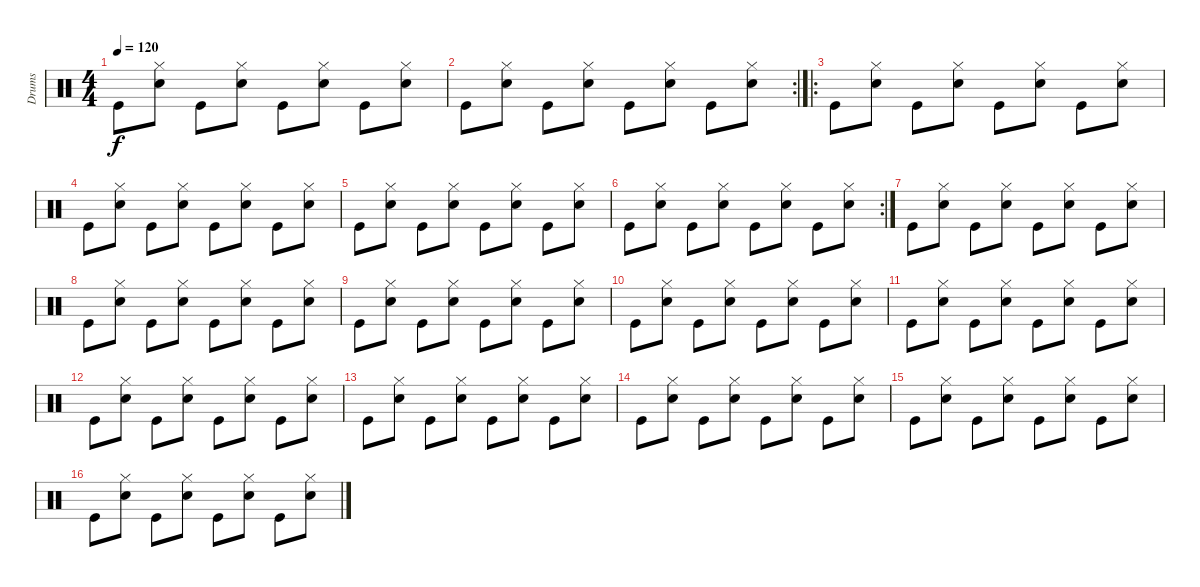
\track ("Drums" "Drums") {instrument percussion}
\staff {score}
\articulation defaults
\ts (4 4)
\tempo 120
\clef neutral
\ks c "Kick (hit)".8{dy f}
("Hi-Hat (closed)" "Snare (hit) 2").8 "Kick (hit)".8 ("Hi-Hat (closed)" "Snare (hit) 2").8 "Kick (hit)".8 ("Hi-Hat (closed)" "Snare (hit) 2").8 "Kick (hit)".8 ("Hi-Hat (closed)" "Snare (hit) 2").8 |
\rc 2 "Kick (hit)".8
("Hi-Hat (closed)" "Snare (hit) 2").8 "Kick (hit)".8 ("Hi-Hat (closed)" "Snare (hit) 2").8 "Kick (hit)".8 ("Hi-Hat (closed)" "Snare (hit) 2").8 "Kick (hit)".8 ("Hi-Hat (closed)" "Snare (hit) 2").8 |
\ro "Kick (hit)".8
("Hi-Hat (closed)" "Snare (hit) 2").8 "Kick (hit)".8 ("Hi-Hat (closed)" "Snare (hit) 2").8 "Kick (hit)".8 ("Hi-Hat (closed)" "Snare (hit) 2").8 "Kick (hit)".8 ("Hi-Hat (closed)" "Snare (hit) 2").8 |
"Kick (hit)".8 ("Hi-Hat (closed)" "Snare (hit) 2").8 "Kick (hit)".8 ("Hi-Hat (closed)" "Snare (hit) 2").8 "Kick (hit)".8 ("Hi-Hat (closed)" "Snare (hit) 2").8 "Kick (hit)".8 ("Hi-Hat (closed)" "Snare (hit) 2").8 |
"Kick (hit)".8 ("Hi-Hat (closed)" "Snare (hit) 2").8 "Kick (hit)".8 ("Hi-Hat (closed)" "Snare (hit) 2").8 "Kick (hit)".8 ("Hi-Hat (closed)" "Snare (hit) 2").8 "Kick (hit)".8 ("Hi-Hat (closed)" "Snare (hit) 2").8 |
\rc 2 "Kick (hit)".8
("Hi-Hat (closed)" "Snare (hit) 2").8 "Kick (hit)".8 ("Hi-Hat (closed)" "Snare (hit) 2").8 "Kick (hit)".8 ("Hi-Hat (closed)" "Snare (hit) 2").8 "Kick (hit)".8 ("Hi-Hat (closed)" "Snare (hit) 2").8 |
"Kick (hit)".8 ("Hi-Hat (closed)" "Snare (hit) 2").8 "Kick (hit)".8 ("Hi-Hat (closed)" "Snare (hit) 2").8 "Kick (hit)".8 ("Hi-Hat (closed)" "Snare (hit) 2").8 "Kick (hit)".8 ("Hi-Hat (closed)" "Snare (hit) 2").8 |
"Kick (hit)".8 ("Hi-Hat (closed)" "Snare (hit) 2").8 "Kick (hit)".8 ("Hi-Hat (closed)" "Snare (hit) 2").8 "Kick (hit)".8 ("Hi-Hat (closed)" "Snare (hit) 2").8 "Kick (hit)".8 ("Hi-Hat (closed)" "Snare (hit) 2").8 |
"Kick (hit)".8 ("Hi-Hat (closed)" "Snare (hit) 2").8 "Kick (hit)".8 ("Hi-Hat (closed)" "Snare (hit) 2").8 "Kick (hit)".8 ("Hi-Hat (closed)" "Snare (hit) 2").8 "Kick (hit)".8 ("Hi-Hat (closed)" "Snare (hit) 2").8 |
"Kick (hit)".8 ("Hi-Hat (closed)" "Snare (hit) 2").8 "Kick (hit)".8 ("Hi-Hat (closed)" "Snare (hit) 2").8 "Kick (hit)".8 ("Hi-Hat (closed)" "Snare (hit) 2").8 "Kick (hit)".8 ("Hi-Hat (closed)" "Snare (hit) 2").8 |
"Kick (hit)".8 ("Hi-Hat (closed)" "Snare (hit) 2").8 "Kick (hit)".8 ("Hi-Hat (closed)" "Snare (hit) 2").8 "Kick (hit)".8 ("Hi-Hat (closed)" "Snare (hit) 2").8 "Kick (hit)".8 ("Hi-Hat (closed)" "Snare (hit) 2").8 |
"Kick (hit)".8 ("Hi-Hat (closed)" "Snare (hit) 2").8 "Kick (hit)".8 ("Hi-Hat (closed)" "Snare (hit) 2").8 "Kick (hit)".8 ("Hi-Hat (closed)" "Snare (hit) 2").8 "Kick (hit)".8 ("Hi-Hat (closed)" "Snare (hit) 2").8 |
"Kick (hit)".8 ("Hi-Hat (closed)" "Snare (hit) 2").8 "Kick (hit)".8 ("Hi-Hat (closed)" "Snare (hit) 2").8 "Kick (hit)".8 ("Hi-Hat (closed)" "Snare (hit) 2").8 "Kick (hit)".8 ("Hi-Hat (closed)" "Snare (hit) 2").8 |
"Kick (hit)".8 ("Hi-Hat (closed)" "Snare (hit) 2").8 "Kick (hit)".8 ("Hi-Hat (closed)" "Snare (hit) 2").8 "Kick (hit)".8 ("Hi-Hat (closed)" "Snare (hit) 2").8 "Kick (hit)".8 ("Hi-Hat (closed)" "Snare (hit) 2").8 |
"Kick (hit)".8 ("Hi-Hat (closed)" "Snare (hit) 2").8 "Kick (hit)".8 ("Hi-Hat (closed)" "Snare (hit) 2").8 "Kick (hit)".8 ("Hi-Hat (closed)" "Snare (hit) 2").8 "Kick (hit)".8 ("Hi-Hat (closed)" "Snare (hit) 2").8 |
"Kick (hit)".8 ("Hi-Hat (closed)" "Snare (hit) 2").8 "Kick (hit)".8 ("Hi-Hat (closed)" "Snare (hit) 2").8 "Kick (hit)".8 ("Hi-Hat (closed)" "Snare (hit) 2").8 "Kick (hit)".8 ("Hi-Hat (closed)" "Snare (hit) 2").8
